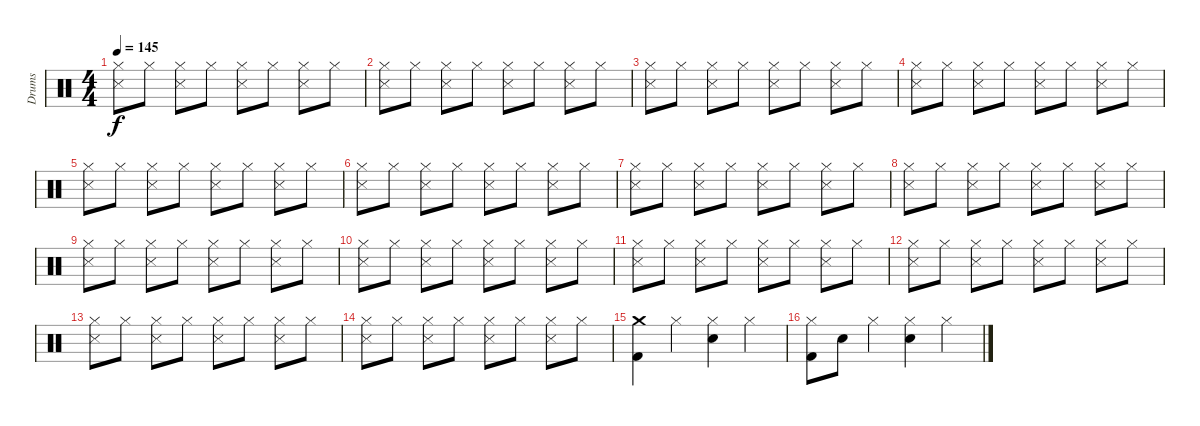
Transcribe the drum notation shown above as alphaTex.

\track ("Drums" "Drums") {instrument percussion}
\staff {score}
\articulation defaults
\ts (4 4)
\tempo 145
\clef neutral
\ks c
("Hi-Hat (closed)" "Snare (side stick) 3").8{dy f} "Hi-Hat (closed)".8 ("Hi-Hat (closed)" "Snare (side stick) 3").8 "Hi-Hat (closed)".8 ("Hi-Hat (closed)" "Snare (side stick) 3").8 "Hi-Hat (closed)".8 ("Hi-Hat (closed)" "Snare (side stick) 3").8 "Hi-Hat (closed)".8 |
("Hi-Hat (closed)" "Snare (side stick) 3").8 "Hi-Hat (closed)".8 ("Hi-Hat (closed)" "Snare (side stick) 3").8 "Hi-Hat (closed)".8 ("Hi-Hat (closed)" "Snare (side stick) 3").8 "Hi-Hat (closed)".8 ("Hi-Hat (closed)" "Snare (side stick) 3").8 "Hi-Hat (closed)".8 |
("Hi-Hat (closed)" "Snare (side stick) 3").8 "Hi-Hat (closed)".8 ("Hi-Hat (closed)" "Snare (side stick) 3").8 "Hi-Hat (closed)".8 ("Hi-Hat (closed)" "Snare (side stick) 3").8 "Hi-Hat (closed)".8 ("Hi-Hat (closed)" "Snare (side stick) 3").8 "Hi-Hat (closed)".8 |
("Hi-Hat (closed)" "Snare (side stick) 3").8 "Hi-Hat (closed)".8 ("Hi-Hat (closed)" "Snare (side stick) 3").8 "Hi-Hat (closed)".8 ("Hi-Hat (closed)" "Snare (side stick) 3").8 "Hi-Hat (closed)".8 ("Hi-Hat (closed)" "Snare (side stick) 3").8 "Hi-Hat (closed)".8 |
("Hi-Hat (closed)" "Snare (side stick) 3").8 "Hi-Hat (closed)".8 ("Hi-Hat (closed)" "Snare (side stick) 3").8 "Hi-Hat (closed)".8 ("Hi-Hat (closed)" "Snare (side stick) 3").8 "Hi-Hat (closed)".8 ("Hi-Hat (closed)" "Snare (side stick) 3").8 "Hi-Hat (closed)".8 |
("Hi-Hat (closed)" "Snare (side stick) 3").8 "Hi-Hat (closed)".8 ("Hi-Hat (closed)" "Snare (side stick) 3").8 "Hi-Hat (closed)".8 ("Hi-Hat (closed)" "Snare (side stick) 3").8 "Hi-Hat (closed)".8 ("Hi-Hat (closed)" "Snare (side stick) 3").8 "Hi-Hat (closed)".8 |
("Hi-Hat (closed)" "Snare (side stick) 3").8 "Hi-Hat (closed)".8 ("Hi-Hat (closed)" "Snare (side stick) 3").8 "Hi-Hat (closed)".8 ("Hi-Hat (closed)" "Snare (side stick) 3").8 "Hi-Hat (closed)".8 ("Hi-Hat (closed)" "Snare (side stick) 3").8 "Hi-Hat (closed)".8 |
("Hi-Hat (closed)" "Snare (side stick) 3").8 "Hi-Hat (closed)".8 ("Hi-Hat (closed)" "Snare (side stick) 3").8 "Hi-Hat (closed)".8 ("Hi-Hat (closed)" "Snare (side stick) 3").8 "Hi-Hat (closed)".8 ("Hi-Hat (closed)" "Snare (side stick) 3").8 "Hi-Hat (closed)".8 |
("Hi-Hat (closed)" "Snare (side stick) 3").8 "Hi-Hat (closed)".8 ("Hi-Hat (closed)" "Snare (side stick) 3").8 "Hi-Hat (closed)".8 ("Hi-Hat (closed)" "Snare (side stick) 3").8 "Hi-Hat (closed)".8 ("Hi-Hat (closed)" "Snare (side stick) 3").8 "Hi-Hat (closed)".8 |
("Hi-Hat (closed)" "Snare (side stick) 3").8 "Hi-Hat (closed)".8 ("Hi-Hat (closed)" "Snare (side stick) 3").8 "Hi-Hat (closed)".8 ("Hi-Hat (closed)" "Snare (side stick) 3").8 "Hi-Hat (closed)".8 ("Hi-Hat (closed)" "Snare (side stick) 3").8 "Hi-Hat (closed)".8 |
("Hi-Hat (closed)" "Snare (side stick) 3").8 "Hi-Hat (closed)".8 ("Hi-Hat (closed)" "Snare (side stick) 3").8 "Hi-Hat (closed)".8 ("Hi-Hat (closed)" "Snare (side stick) 3").8 "Hi-Hat (closed)".8 ("Hi-Hat (closed)" "Snare (side stick) 3").8 "Hi-Hat (closed)".8 |
("Hi-Hat (closed)" "Snare (side stick) 3").8 "Hi-Hat (closed)".8 ("Hi-Hat (closed)" "Snare (side stick) 3").8 "Hi-Hat (closed)".8 ("Hi-Hat (closed)" "Snare (side stick) 3").8 "Hi-Hat (closed)".8 ("Hi-Hat (closed)" "Snare (side stick) 3").8 "Hi-Hat (closed)".8 |
("Hi-Hat (closed)" "Snare (side stick) 3").8 "Hi-Hat (closed)".8 ("Hi-Hat (closed)" "Snare (side stick) 3").8 "Hi-Hat (closed)".8 ("Hi-Hat (closed)" "Snare (side stick) 3").8 "Hi-Hat (closed)".8 ("Hi-Hat (closed)" "Snare (side stick) 3").8 "Hi-Hat (closed)".8 |
("Hi-Hat (closed)" "Snare (side stick) 3").8 "Hi-Hat (closed)".8 ("Hi-Hat (closed)" "Snare (side stick) 3").8 "Hi-Hat (closed)".8 ("Hi-Hat (closed)" "Snare (side stick) 3").8 "Hi-Hat (closed)".8 ("Hi-Hat (closed)" "Snare (side stick) 3").8 "Hi-Hat (closed)".8 |
("Crash medium (hit)" "Kick (hit) 2").4 "Hi-Hat (closed)".4 ("Hi-Hat (closed)" "Snare (hit) 2").4 "Hi-Hat (closed)".4 |
("Hi-Hat (closed)" "Kick (hit) 2").8 "Snare (hit) 2".8 "Hi-Hat (closed)".4 ("Hi-Hat (closed)" "Snare (hit) 2").4 "Hi-Hat (closed)".4
